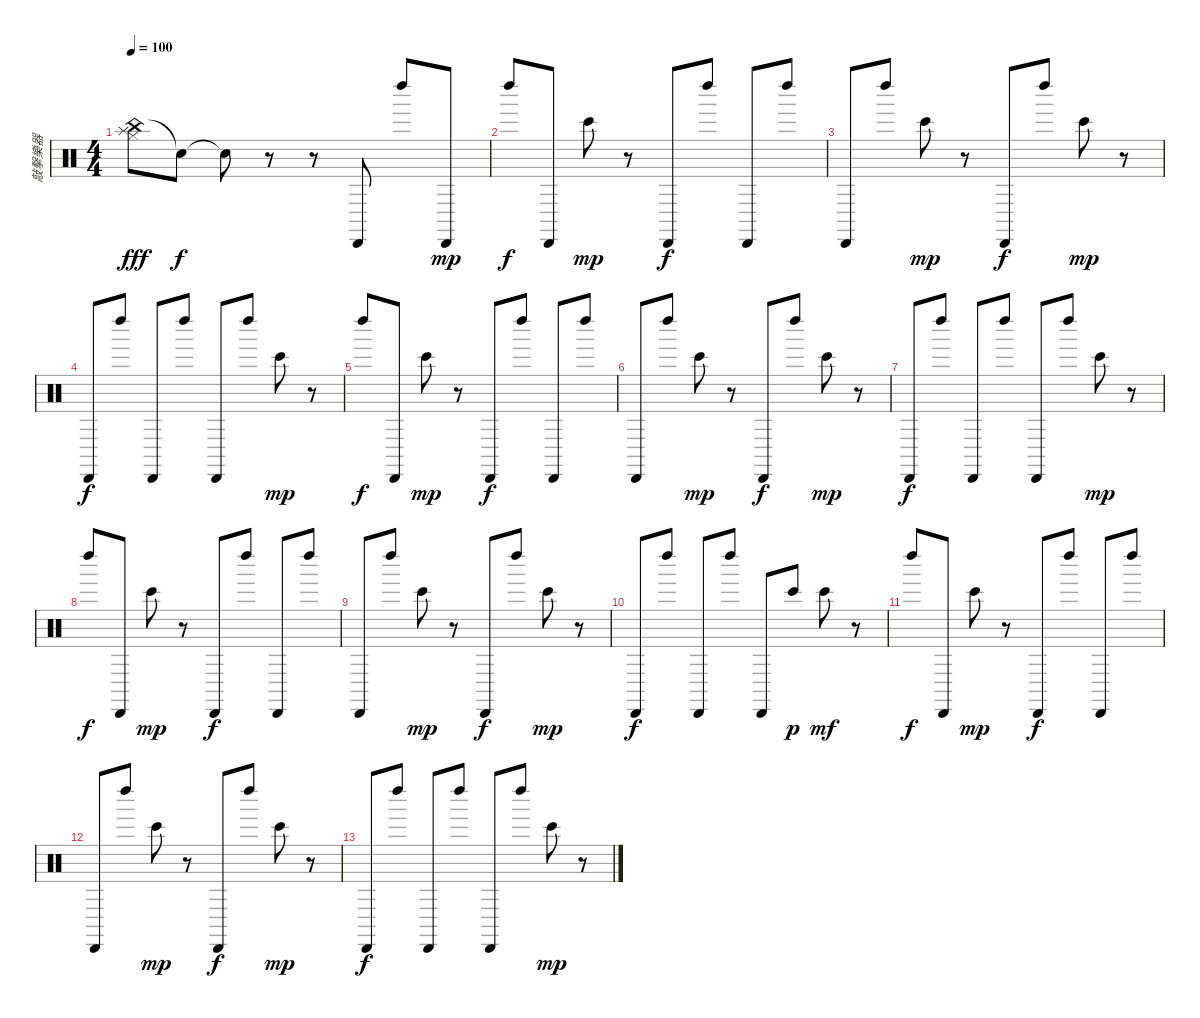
\track ("敲擊樂器" "敲擊樂器") {instrument percussion}
\staff {score}
\articulation defaults
\ts (4 4)
\tempo 100
\clef neutral
\ks c
("China (hit)" "Splash (hit)" "Hi-Hat (closed)").8{dy fff volume 13} "Snare (hit)"{t}.8{dy f} "Snare (hit)"{t}.8 r.8 r.8 "Cabasa (hit)".8 "Left Maraca (hit)".8 "Cabasa (hit)".8{dy mp} |
"Left Maraca (hit)".8{dy f} "Cabasa (hit)".8 "Bongo High (hit)".8{dy mp} r.8 "Cabasa (hit)".8{dy f} "Left Maraca (hit)".8 "Cabasa (hit)".8 "Left Maraca (hit)".8 |
"Cabasa (hit)".8 "Left Maraca (hit)".8 "Bongo High (hit)".8{dy mp} r.8 "Cabasa (hit)".8{dy f} "Left Maraca (hit)".8 "Bongo High (hit)".8{dy mp} r.8 |
"Cabasa (hit)".8{dy f} "Left Maraca (hit)".8 "Cabasa (hit)".8 "Left Maraca (hit)".8 "Cabasa (hit)".8 "Left Maraca (hit)".8 "Bongo High (hit)".8{dy mp} r.8 |
"Left Maraca (hit)".8{dy f} "Cabasa (hit)".8 "Bongo High (hit)".8{dy mp} r.8 "Cabasa (hit)".8{dy f} "Left Maraca (hit)".8 "Cabasa (hit)".8 "Left Maraca (hit)".8 |
"Cabasa (hit)".8 "Left Maraca (hit)".8 "Bongo High (hit)".8{dy mp} r.8 "Cabasa (hit)".8{dy f} "Left Maraca (hit)".8 "Bongo High (hit)".8{dy mp} r.8 |
"Cabasa (hit)".8{dy f} "Left Maraca (hit)".8 "Cabasa (hit)".8 "Left Maraca (hit)".8 "Cabasa (hit)".8 "Left Maraca (hit)".8 "Bongo High (hit)".8{dy mp} r.8 |
"Left Maraca (hit)".8{dy f} "Cabasa (hit)".8 "Bongo High (hit)".8{dy mp} r.8 "Cabasa (hit)".8{dy f} "Left Maraca (hit)".8 "Cabasa (hit)".8 "Left Maraca (hit)".8 |
"Cabasa (hit)".8 "Left Maraca (hit)".8 "Bongo High (hit)".8{dy mp} r.8 "Cabasa (hit)".8{dy f} "Left Maraca (hit)".8 "Bongo High (hit)".8{dy mp} r.8 |
"Cabasa (hit)".8{dy f} "Left Maraca (hit)".8 "Cabasa (hit)".8 "Left Maraca (hit)".8 "Cabasa (hit)".8 "Bongo High (hit)".8{dy p} "Bongo High (hit)".8{dy mf} r.8 |
"Left Maraca (hit)".8{dy f} "Cabasa (hit)".8 "Bongo High (hit)".8{dy mp} r.8 "Cabasa (hit)".8{dy f} "Left Maraca (hit)".8 "Cabasa (hit)".8 "Left Maraca (hit)".8 |
"Cabasa (hit)".8 "Left Maraca (hit)".8 "Bongo High (hit)".8{dy mp} r.8 "Cabasa (hit)".8{dy f} "Left Maraca (hit)".8 "Bongo High (hit)".8{dy mp} r.8 |
"Cabasa (hit)".8{dy f} "Left Maraca (hit)".8 "Cabasa (hit)".8 "Left Maraca (hit)".8 "Cabasa (hit)".8 "Left Maraca (hit)".8 "Bongo High (hit)".8{dy mp} r.8
